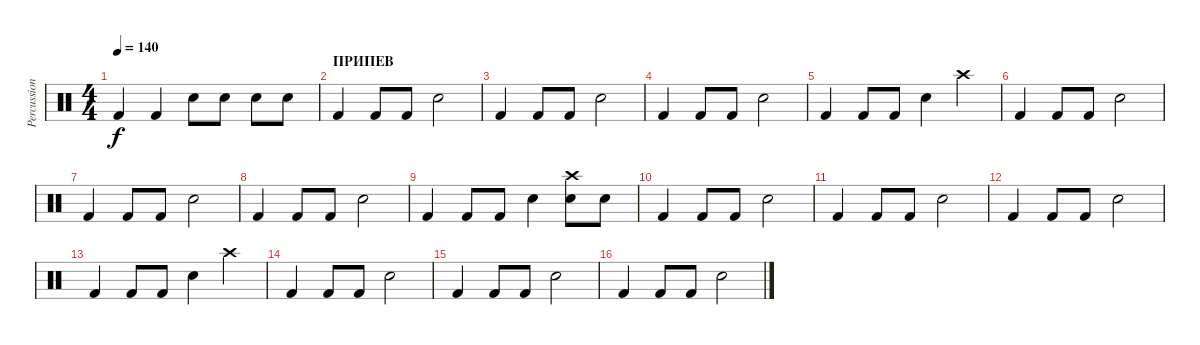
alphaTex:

\track ("Percussion" "Percussion") {instrument percussion}
\staff {score}
\articulation defaults
\ts (4 4)
\tempo 140
\clef neutral
\ks c "Kick (hit) 2".4{dy f} "Kick (hit) 2".4 "Snare (hit) 2".8 "Snare (hit) 2".8 "Snare (hit) 2".8 "Snare (hit) 2".8
|
\section ("" "ПРИПЕВ")
"Kick (hit) 2".4 "Kick (hit) 2".8 "Kick (hit) 2".8 "Snare (hit) 2".2 |
"Kick (hit) 2".4 "Kick (hit) 2".8 "Kick (hit) 2".8 "Snare (hit) 2".2 |
"Kick (hit) 2".4 "Kick (hit) 2".8 "Kick (hit) 2".8 "Snare (hit) 2".2 |
"Kick (hit) 2".4 "Kick (hit) 2".8 "Kick (hit) 2".8 "Snare (hit) 2".4 "Crash high (hit)".4 |
"Kick (hit) 2".4 "Kick (hit) 2".8 "Kick (hit) 2".8 "Snare (hit) 2".2 |
"Kick (hit) 2".4 "Kick (hit) 2".8 "Kick (hit) 2".8 "Snare (hit) 2".2 |
"Kick (hit) 2".4 "Kick (hit) 2".8 "Kick (hit) 2".8 "Snare (hit) 2".2 |
"Kick (hit) 2".4 "Kick (hit) 2".8 "Kick (hit) 2".8 "Snare (hit) 2".4 ("Crash high (hit)" "Snare (hit) 2").8 "Snare (hit) 2".8 |
"Kick (hit) 2".4 "Kick (hit) 2".8 "Kick (hit) 2".8 "Snare (hit) 2".2 |
"Kick (hit) 2".4 "Kick (hit) 2".8 "Kick (hit) 2".8 "Snare (hit) 2".2 |
"Kick (hit) 2".4 "Kick (hit) 2".8 "Kick (hit) 2".8 "Snare (hit) 2".2 |
"Kick (hit) 2".4 "Kick (hit) 2".8 "Kick (hit) 2".8 "Snare (hit) 2".4 "Crash high (hit)".4 |
"Kick (hit) 2".4 "Kick (hit) 2".8 "Kick (hit) 2".8 "Snare (hit) 2".2 |
"Kick (hit) 2".4 "Kick (hit) 2".8 "Kick (hit) 2".8 "Snare (hit) 2".2 |
"Kick (hit) 2".4 "Kick (hit) 2".8 "Kick (hit) 2".8 "Snare (hit) 2".2
